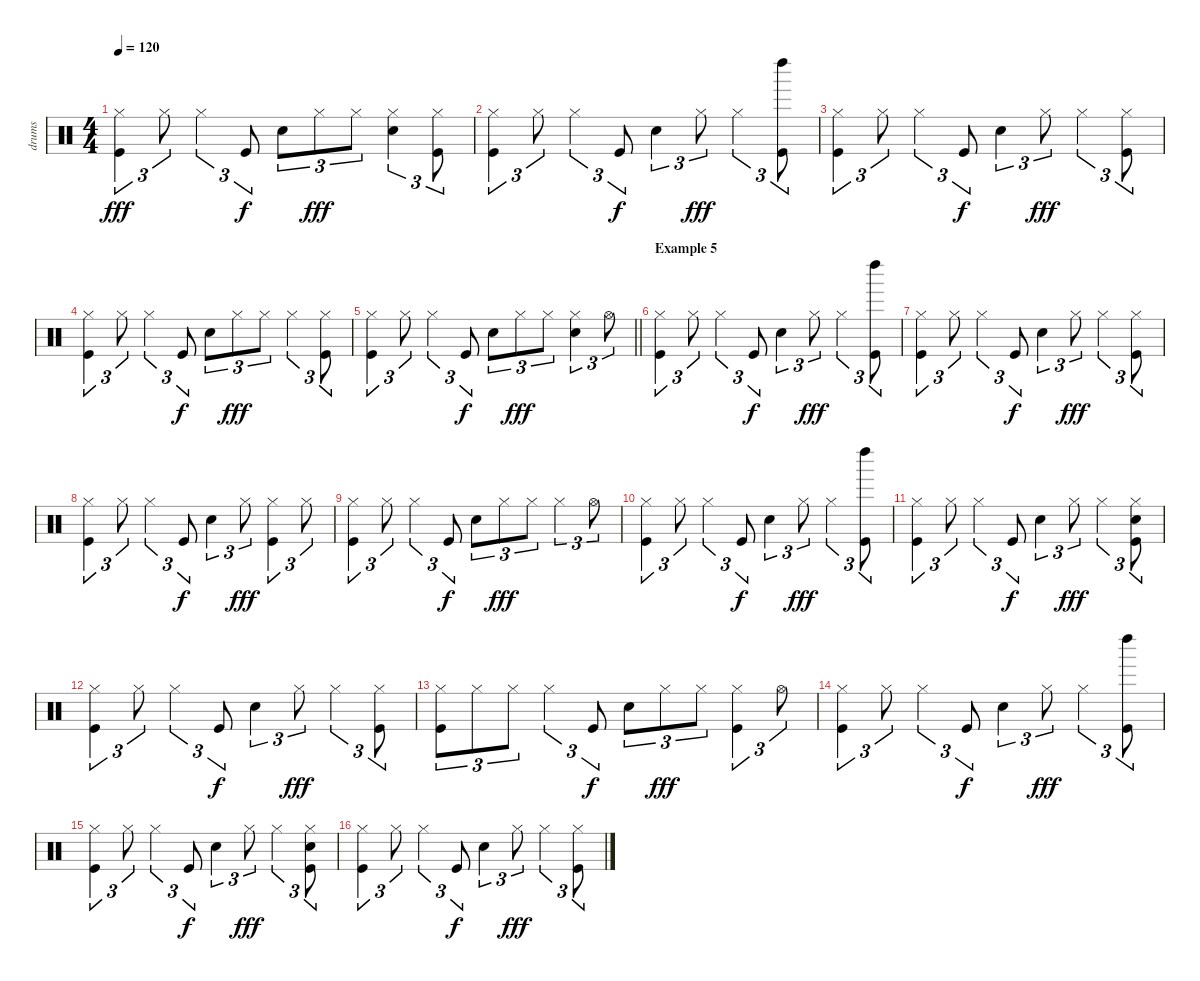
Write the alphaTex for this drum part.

\track ("drums" "drums") {instrument percussion}
\staff {score}
\articulation defaults
\ts (4 4)
\tempo 120
\clef neutral
\ks c
("Hi-Hat (closed)" "Kick (hit)").4{tu (3 2) dy fff} "Hi-Hat (closed)".8{tu (3 2)} "Hi-Hat (closed)".4{tu (3 2)} "Kick (hit)".8{tu (3 2) dy f} "Snare (hit) 2".8{tu (3 2)} "Hi-Hat (closed)".8{tu (3 2) dy fff} "Hi-Hat (closed)".8{tu (3 2)} ("Snare (hit) 2" "Hi-Hat (closed)").4{tu (3 2)} ("Hi-Hat (closed)" "Kick (hit)").8{tu (3 2)} |
("Hi-Hat (closed)" "Kick (hit)").4{tu (3 2)} "Hi-Hat (closed)".8{tu (3 2)} "Hi-Hat (closed)".4{tu (3 2)} "Kick (hit)".8{tu (3 2) dy f} "Snare (hit) 2".4{tu (3 2)} "Hi-Hat (closed)".8{tu (3 2) dy fff} "Hi-Hat (closed)".4{tu (3 2)} ("Left Maraca (hit)" "Kick (hit)").8{tu (3 2)} |
("Hi-Hat (closed)" "Kick (hit)").4{tu (3 2)} "Hi-Hat (closed)".8{tu (3 2)} "Hi-Hat (closed)".4{tu (3 2)} "Kick (hit)".8{tu (3 2) dy f} "Snare (hit) 2".4{tu (3 2)} "Hi-Hat (closed)".8{tu (3 2) dy fff} "Hi-Hat (closed)".4{tu (3 2)} ("Hi-Hat (closed)" "Kick (hit)").8{tu (3 2)} |
("Hi-Hat (closed)" "Kick (hit)").4{tu (3 2)} "Hi-Hat (closed)".8{tu (3 2)} "Hi-Hat (closed)".4{tu (3 2)} "Kick (hit)".8{tu (3 2) dy f} "Snare (hit) 2".8{tu (3 2)} "Hi-Hat (closed)".8{tu (3 2) dy fff} "Hi-Hat (closed)".8{tu (3 2)} "Hi-Hat (closed)".4{tu (3 2)} ("Hi-Hat (closed)" "Kick (hit)").8{tu (3 2)} |
\barLineRight lightlight
("Hi-Hat (closed)" "Kick (hit)").4{tu (3 2)} "Hi-Hat (closed)".8{tu (3 2)} "Hi-Hat (closed)".4{tu (3 2)} "Kick (hit)".8{tu (3 2) dy f} "Snare (hit) 2".8{tu (3 2)} "Hi-Hat (closed)".8{tu (3 2) dy fff} "Hi-Hat (closed)".8{tu (3 2)} ("Snare (hit) 2" "Hi-Hat (closed)").4{tu (3 2)} "Hi-Hat (open)".8{tu (3 2)} |
\section ("" "Example 5")
("Hi-Hat (closed)" "Kick (hit)").4{tu (3 2)} "Hi-Hat (closed)".8{tu (3 2)} "Hi-Hat (closed)".4{tu (3 2)} "Kick (hit)".8{tu (3 2) dy f} "Snare (hit) 2".4{tu (3 2)} "Hi-Hat (closed)".8{tu (3 2) dy fff} "Hi-Hat (closed)".4{tu (3 2)} ("Left Maraca (hit)" "Kick (hit)").8{tu (3 2)} |
("Hi-Hat (closed)" "Kick (hit)").4{tu (3 2)} "Hi-Hat (closed)".8{tu (3 2)} "Hi-Hat (closed)".4{tu (3 2)} "Kick (hit)".8{tu (3 2) dy f} "Snare (hit) 2".4{tu (3 2)} "Hi-Hat (closed)".8{tu (3 2) dy fff} "Hi-Hat (closed)".4{tu (3 2)} ("Hi-Hat (closed)" "Kick (hit)").8{tu (3 2)} |
("Hi-Hat (closed)" "Kick (hit)").4{tu (3 2)} "Hi-Hat (closed)".8{tu (3 2)} "Hi-Hat (closed)".4{tu (3 2)} "Kick (hit)".8{tu (3 2) dy f} "Snare (hit) 2".4{tu (3 2)} "Hi-Hat (closed)".8{tu (3 2) dy fff} ("Hi-Hat (closed)" "Kick (hit)").4{tu (3 2)} "Hi-Hat (closed)".8{tu (3 2)} |
("Hi-Hat (closed)" "Kick (hit)").4{tu (3 2)} "Hi-Hat (closed)".8{tu (3 2)} "Hi-Hat (closed)".4{tu (3 2)} "Kick (hit)".8{tu (3 2) dy f} "Snare (hit) 2".8{tu (3 2)} "Hi-Hat (closed)".8{tu (3 2) dy fff} "Hi-Hat (closed)".8{tu (3 2)} "Hi-Hat (closed)".4{tu (3 2)} "Hi-Hat (open)".8{tu (3 2)} |
("Hi-Hat (closed)" "Kick (hit)").4{tu (3 2)} "Hi-Hat (closed)".8{tu (3 2)} "Hi-Hat (closed)".4{tu (3 2)} "Kick (hit)".8{tu (3 2) dy f} "Snare (hit) 2".4{tu (3 2)} "Hi-Hat (closed)".8{tu (3 2) dy fff} "Hi-Hat (closed)".4{tu (3 2)} ("Left Maraca (hit)" "Kick (hit)").8{tu (3 2)} |
("Hi-Hat (closed)" "Kick (hit)").4{tu (3 2)} "Hi-Hat (closed)".8{tu (3 2)} "Hi-Hat (closed)".4{tu (3 2)} "Kick (hit)".8{tu (3 2) dy f} "Snare (hit) 2".4{tu (3 2)} "Hi-Hat (closed)".8{tu (3 2) dy fff} "Hi-Hat (closed)".4{tu (3 2)} ("Snare (hit) 2" "Hi-Hat (closed)" "Kick (hit)").8{tu (3 2)} |
("Hi-Hat (closed)" "Kick (hit)").4{tu (3 2)} "Hi-Hat (closed)".8{tu (3 2)} "Hi-Hat (closed)".4{tu (3 2)} "Kick (hit)".8{tu (3 2) dy f} "Snare (hit) 2".4{tu (3 2)} "Hi-Hat (closed)".8{tu (3 2) dy fff} "Hi-Hat (closed)".4{tu (3 2)} ("Hi-Hat (closed)" "Kick (hit)").8{tu (3 2)} |
("Hi-Hat (closed)" "Kick (hit)").8{tu (3 2)} "Hi-Hat (closed)".8{tu (3 2)} "Hi-Hat (closed)".8{tu (3 2)} "Hi-Hat (closed)".4{tu (3 2)} "Kick (hit)".8{tu (3 2) dy f} "Snare (hit) 2".8{tu (3 2)} "Hi-Hat (closed)".8{tu (3 2) dy fff} "Hi-Hat (closed)".8{tu (3 2)} ("Hi-Hat (closed)" "Kick (hit)").4{tu (3 2)} "Hi-Hat (open)".8{tu (3 2)} |
("Hi-Hat (closed)" "Kick (hit)").4{tu (3 2)} "Hi-Hat (closed)".8{tu (3 2)} "Hi-Hat (closed)".4{tu (3 2)} "Kick (hit)".8{tu (3 2) dy f} "Snare (hit) 2".4{tu (3 2)} "Hi-Hat (closed)".8{tu (3 2) dy fff} "Hi-Hat (closed)".4{tu (3 2)} ("Left Maraca (hit)" "Kick (hit)").8{tu (3 2)} |
("Hi-Hat (closed)" "Kick (hit)").4{tu (3 2)} "Hi-Hat (closed)".8{tu (3 2)} "Hi-Hat (closed)".4{tu (3 2)} "Kick (hit)".8{tu (3 2) dy f} "Snare (hit) 2".4{tu (3 2)} "Hi-Hat (closed)".8{tu (3 2) dy fff} "Hi-Hat (closed)".4{tu (3 2)} ("Snare (hit) 2" "Hi-Hat (closed)" "Kick (hit)").8{tu (3 2)} |
("Hi-Hat (closed)" "Kick (hit)").4{tu (3 2)} "Hi-Hat (closed)".8{tu (3 2)} "Hi-Hat (closed)".4{tu (3 2)} "Kick (hit)".8{tu (3 2) dy f} "Snare (hit) 2".4{tu (3 2)} "Hi-Hat (closed)".8{tu (3 2) dy fff} "Hi-Hat (closed)".4{tu (3 2)} ("Hi-Hat (closed)" "Kick (hit)").8{tu (3 2)}
